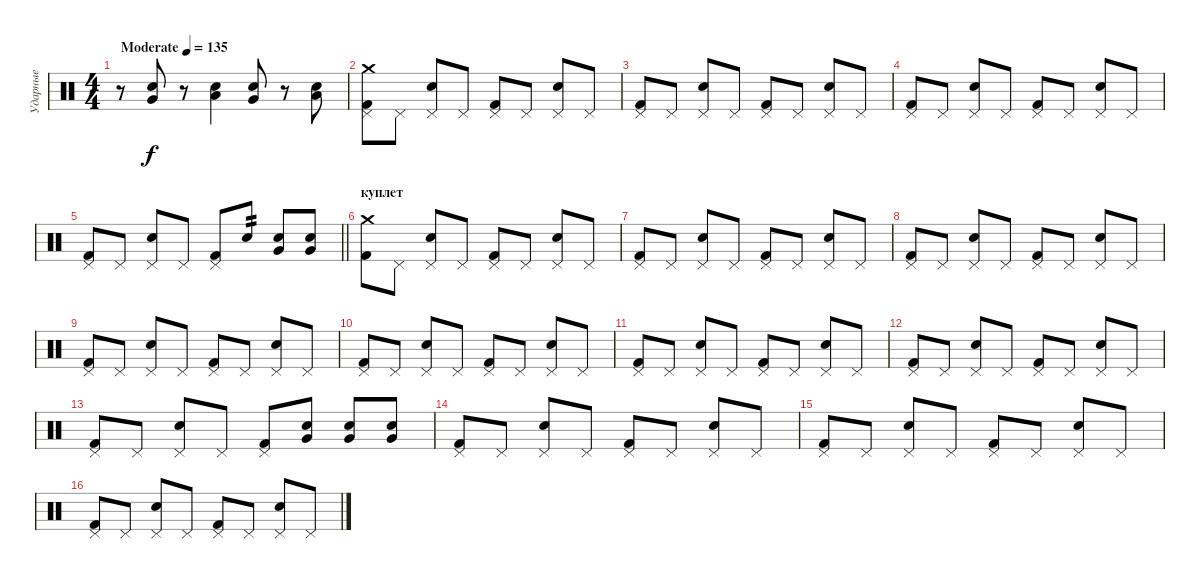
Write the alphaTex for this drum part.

\track ("Ударные" "Ударные") {instrument percussion}
\staff {score}
\articulation defaults
\ts (4 4)
\tempo (135 "Moderate")
\clef neutral
\ks c
r.8{dy f} ("Very Low Tom (hit)" "Electric Snare (hit)").8 r.8 ("Low Floor Tom (hit)" "Electric Snare (hit)").4 ("Very Low Tom (hit)" "Electric Snare (hit)").8 r.8 ("Low Floor Tom (hit)" "Electric Snare (hit)").8 |
("Crash medium (hit)" "Pedal Hi-Hat (hit)" "Kick (hit) 2").8 "Pedal Hi-Hat (hit)".8 ("Pedal Hi-Hat (hit)" "Electric Snare (hit)").8 "Pedal Hi-Hat (hit)".8 ("Pedal Hi-Hat (hit)" "Kick (hit) 2").8 "Pedal Hi-Hat (hit)".8 ("Pedal Hi-Hat (hit)" "Electric Snare (hit)").8 "Pedal Hi-Hat (hit)".8 |
("Pedal Hi-Hat (hit)" "Kick (hit) 2").8 "Pedal Hi-Hat (hit)".8 ("Pedal Hi-Hat (hit)" "Electric Snare (hit)").8 "Pedal Hi-Hat (hit)".8 ("Pedal Hi-Hat (hit)" "Kick (hit) 2").8 "Pedal Hi-Hat (hit)".8 ("Pedal Hi-Hat (hit)" "Electric Snare (hit)").8 "Pedal Hi-Hat (hit)".8 |
("Pedal Hi-Hat (hit)" "Kick (hit) 2").8 "Pedal Hi-Hat (hit)".8 ("Pedal Hi-Hat (hit)" "Electric Snare (hit)").8 "Pedal Hi-Hat (hit)".8 ("Pedal Hi-Hat (hit)" "Kick (hit) 2").8 "Pedal Hi-Hat (hit)".8 ("Pedal Hi-Hat (hit)" "Electric Snare (hit)").8 "Pedal Hi-Hat (hit)".8 |
\barLineRight lightlight
("Pedal Hi-Hat (hit)" "Kick (hit) 2").8 "Pedal Hi-Hat (hit)".8 ("Pedal Hi-Hat (hit)" "Electric Snare (hit)").8 "Pedal Hi-Hat (hit)".8 ("Pedal Hi-Hat (hit)" "Kick (hit) 2").8 "Electric Snare (hit)".8{tp 2} ("Electric Snare (hit)" "Very Low Tom (hit)").8 ("Electric Snare (hit)" "Very Low Tom (hit)").8 |
\section ("" "куплет")
("Crash medium (hit)" "Kick (hit) 2").8 "Pedal Hi-Hat (hit)".8 ("Pedal Hi-Hat (hit)" "Electric Snare (hit)").8 "Pedal Hi-Hat (hit)".8 ("Pedal Hi-Hat (hit)" "Kick (hit) 2").8 "Pedal Hi-Hat (hit)".8 ("Pedal Hi-Hat (hit)" "Electric Snare (hit)").8 "Pedal Hi-Hat (hit)".8 |
("Pedal Hi-Hat (hit)" "Kick (hit) 2").8 "Pedal Hi-Hat (hit)".8 ("Pedal Hi-Hat (hit)" "Electric Snare (hit)").8 "Pedal Hi-Hat (hit)".8 ("Pedal Hi-Hat (hit)" "Kick (hit) 2").8 "Pedal Hi-Hat (hit)".8 ("Pedal Hi-Hat (hit)" "Electric Snare (hit)").8 "Pedal Hi-Hat (hit)".8 |
("Pedal Hi-Hat (hit)" "Kick (hit) 2").8 "Pedal Hi-Hat (hit)".8 ("Pedal Hi-Hat (hit)" "Electric Snare (hit)").8 "Pedal Hi-Hat (hit)".8 ("Pedal Hi-Hat (hit)" "Kick (hit) 2").8 "Pedal Hi-Hat (hit)".8 ("Pedal Hi-Hat (hit)" "Electric Snare (hit)").8 "Pedal Hi-Hat (hit)".8 |
("Pedal Hi-Hat (hit)" "Kick (hit) 2").8 "Pedal Hi-Hat (hit)".8 ("Pedal Hi-Hat (hit)" "Electric Snare (hit)").8 "Pedal Hi-Hat (hit)".8 ("Pedal Hi-Hat (hit)" "Kick (hit) 2").8 "Pedal Hi-Hat (hit)".8 ("Pedal Hi-Hat (hit)" "Electric Snare (hit)").8 "Pedal Hi-Hat (hit)".8 |
("Pedal Hi-Hat (hit)" "Kick (hit) 2").8 "Pedal Hi-Hat (hit)".8 ("Pedal Hi-Hat (hit)" "Electric Snare (hit)").8 "Pedal Hi-Hat (hit)".8 ("Pedal Hi-Hat (hit)" "Kick (hit) 2").8 "Pedal Hi-Hat (hit)".8 ("Pedal Hi-Hat (hit)" "Electric Snare (hit)").8 "Pedal Hi-Hat (hit)".8 |
("Pedal Hi-Hat (hit)" "Kick (hit) 2").8 "Pedal Hi-Hat (hit)".8 ("Pedal Hi-Hat (hit)" "Electric Snare (hit)").8 "Pedal Hi-Hat (hit)".8 ("Pedal Hi-Hat (hit)" "Kick (hit) 2").8 "Pedal Hi-Hat (hit)".8 ("Pedal Hi-Hat (hit)" "Electric Snare (hit)").8 "Pedal Hi-Hat (hit)".8 |
("Pedal Hi-Hat (hit)" "Kick (hit) 2").8 "Pedal Hi-Hat (hit)".8 ("Pedal Hi-Hat (hit)" "Electric Snare (hit)").8 "Pedal Hi-Hat (hit)".8 ("Pedal Hi-Hat (hit)" "Kick (hit) 2").8 "Pedal Hi-Hat (hit)".8 ("Pedal Hi-Hat (hit)" "Electric Snare (hit)").8 "Pedal Hi-Hat (hit)".8 |
("Pedal Hi-Hat (hit)" "Kick (hit) 2").8 "Pedal Hi-Hat (hit)".8 ("Pedal Hi-Hat (hit)" "Electric Snare (hit)").8 "Pedal Hi-Hat (hit)".8 ("Pedal Hi-Hat (hit)" "Kick (hit) 2").8 ("Electric Snare (hit)" "Very Low Tom (hit)").8 ("Electric Snare (hit)" "Very Low Tom (hit)").8 ("Electric Snare (hit)" "Very Low Tom (hit)").8 |
("Pedal Hi-Hat (hit)" "Kick (hit) 2").8 "Pedal Hi-Hat (hit)".8 ("Pedal Hi-Hat (hit)" "Electric Snare (hit)").8 "Pedal Hi-Hat (hit)".8 ("Pedal Hi-Hat (hit)" "Kick (hit) 2").8 "Pedal Hi-Hat (hit)".8 ("Pedal Hi-Hat (hit)" "Electric Snare (hit)").8 "Pedal Hi-Hat (hit)".8 |
("Pedal Hi-Hat (hit)" "Kick (hit) 2").8 "Pedal Hi-Hat (hit)".8 ("Pedal Hi-Hat (hit)" "Electric Snare (hit)").8 "Pedal Hi-Hat (hit)".8 ("Pedal Hi-Hat (hit)" "Kick (hit) 2").8 "Pedal Hi-Hat (hit)".8 ("Pedal Hi-Hat (hit)" "Electric Snare (hit)").8 "Pedal Hi-Hat (hit)".8 |
("Pedal Hi-Hat (hit)" "Kick (hit) 2").8 "Pedal Hi-Hat (hit)".8 ("Pedal Hi-Hat (hit)" "Electric Snare (hit)").8 "Pedal Hi-Hat (hit)".8 ("Pedal Hi-Hat (hit)" "Kick (hit) 2").8 "Pedal Hi-Hat (hit)".8 ("Pedal Hi-Hat (hit)" "Electric Snare (hit)").8 "Pedal Hi-Hat (hit)".8
